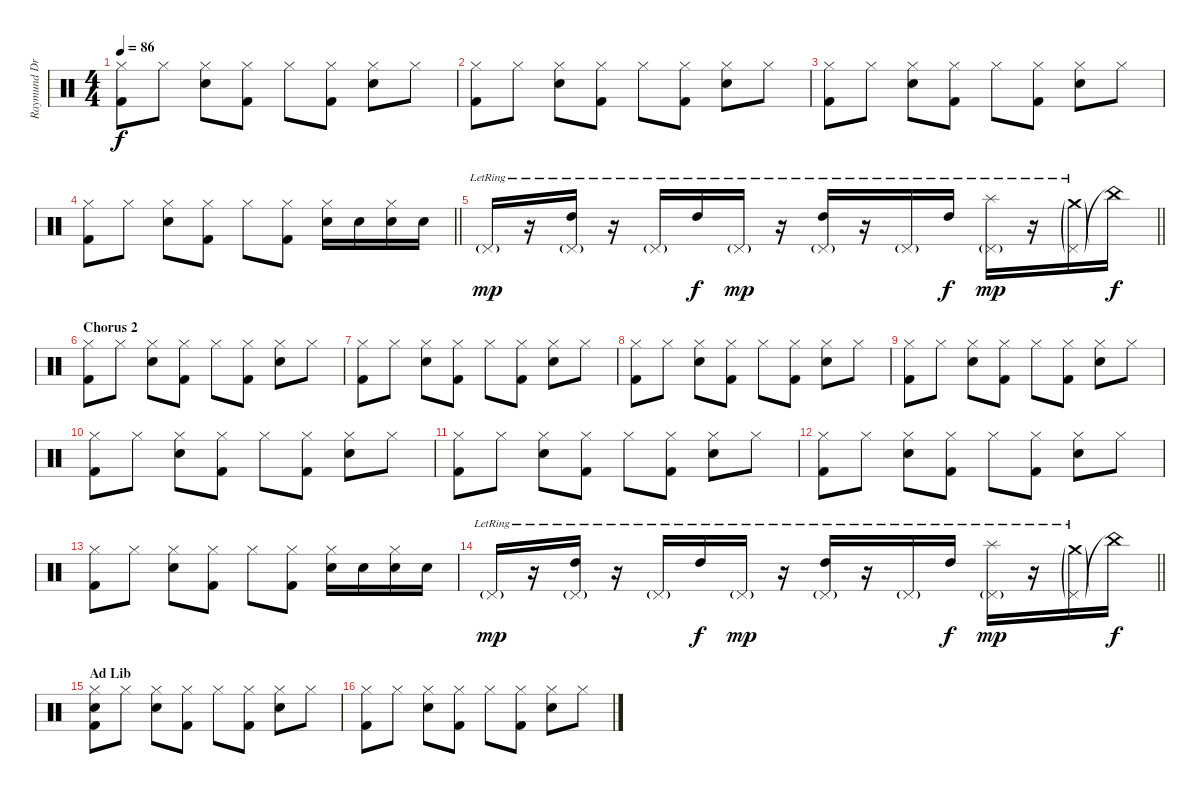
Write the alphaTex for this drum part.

\track ("Raymund Drums" "Raymund Dr") {instrument percussion}
\staff {score}
\articulation defaults
\ts (4 4)
\tempo 86
\clef neutral
\ks c
("Hi-Hat (closed)" "Kick (hit) 2").8{dy f} "Hi-Hat (closed)".8 ("Hi-Hat (closed)" "Snare (hit) 2").8 ("Hi-Hat (closed)" "Kick (hit) 2").8 "Hi-Hat (closed)".8 ("Hi-Hat (closed)" "Kick (hit) 2").8 ("Hi-Hat (closed)" "Snare (hit) 2").8 "Hi-Hat (closed)".8 |
("Hi-Hat (closed)" "Kick (hit) 2").8 "Hi-Hat (closed)".8 ("Hi-Hat (closed)" "Snare (hit) 2").8 ("Hi-Hat (closed)" "Kick (hit) 2").8 "Hi-Hat (closed)".8 ("Hi-Hat (closed)" "Kick (hit) 2").8 ("Hi-Hat (closed)" "Snare (hit) 2").8 "Hi-Hat (closed)".8 |
("Hi-Hat (closed)" "Kick (hit) 2").8 "Hi-Hat (closed)".8 ("Hi-Hat (closed)" "Snare (hit) 2").8 ("Hi-Hat (closed)" "Kick (hit) 2").8 "Hi-Hat (closed)".8 ("Hi-Hat (closed)" "Kick (hit) 2").8 ("Hi-Hat (closed)" "Snare (hit) 2").8 "Hi-Hat (closed)".8 |
\barLineRight lightlight
("Hi-Hat (closed)" "Kick (hit) 2").8 "Hi-Hat (closed)".8 ("Hi-Hat (closed)" "Snare (hit) 2").8 ("Hi-Hat (closed)" "Kick (hit) 2").8 "Hi-Hat (closed)".8 ("Hi-Hat (closed)" "Kick (hit) 2").8 ("Hi-Hat (closed)" "Snare (hit) 2").16 "Snare (hit) 2".16 ("Hi-Hat (closed)" "Snare (hit) 2").16 "Snare (hit) 2".16 |
\barLineRight lightlight "Pedal Hi-Hat (hit)"{g lr}.16{dy mp}
r.16 ("Pedal Hi-Hat (hit)"{g lr} "High Tom (hit)"{lr}).16 r.16 "Pedal Hi-Hat (hit)"{g lr}.16 "High Tom (hit)"{lr}.16{dy f} "Pedal Hi-Hat (hit)"{g lr}.16{dy mp} r.16 ("Pedal Hi-Hat (hit)"{g lr} "High Tom (hit)"{lr}).16 r.16 "Pedal Hi-Hat (hit)"{g lr}.16 "High Tom (hit)"{lr}.16{dy f} ("Pedal Hi-Hat (hit)"{g lr} "Splash (hit)"{lr}).16{dy mp} r.16 ("Pedal Hi-Hat (hit)"{g lr} "Crash medium (hit)"{g lr}).16 "China (hit)"{t}.16{dy f} |
\section ("" "Chorus 2")
("Hi-Hat (closed)" "Kick (hit) 2").8 "Hi-Hat (closed)".8 ("Hi-Hat (closed)" "Snare (hit) 2").8 ("Hi-Hat (closed)" "Kick (hit) 2").8 "Hi-Hat (closed)".8 ("Hi-Hat (closed)" "Kick (hit) 2").8 ("Hi-Hat (closed)" "Snare (hit) 2").8 "Hi-Hat (closed)".8 |
("Hi-Hat (closed)" "Kick (hit) 2").8 "Hi-Hat (closed)".8 ("Hi-Hat (closed)" "Snare (hit) 2").8 ("Hi-Hat (closed)" "Kick (hit) 2").8 "Hi-Hat (closed)".8 ("Hi-Hat (closed)" "Kick (hit) 2").8 ("Hi-Hat (closed)" "Snare (hit) 2").8 "Hi-Hat (closed)".8 |
("Hi-Hat (closed)" "Kick (hit) 2").8 "Hi-Hat (closed)".8 ("Hi-Hat (closed)" "Snare (hit) 2").8 ("Hi-Hat (closed)" "Kick (hit) 2").8 "Hi-Hat (closed)".8 ("Hi-Hat (closed)" "Kick (hit) 2").8 ("Hi-Hat (closed)" "Snare (hit) 2").8 "Hi-Hat (closed)".8 |
("Hi-Hat (closed)" "Kick (hit) 2").8 "Hi-Hat (closed)".8 ("Hi-Hat (closed)" "Snare (hit) 2").8 ("Hi-Hat (closed)" "Kick (hit) 2").8 "Hi-Hat (closed)".8 ("Hi-Hat (closed)" "Kick (hit) 2").8 ("Hi-Hat (closed)" "Snare (hit) 2").8 "Hi-Hat (closed)".8 |
("Hi-Hat (closed)" "Kick (hit) 2").8 "Hi-Hat (closed)".8 ("Hi-Hat (closed)" "Snare (hit) 2").8 ("Hi-Hat (closed)" "Kick (hit) 2").8 "Hi-Hat (closed)".8 ("Hi-Hat (closed)" "Kick (hit) 2").8 ("Hi-Hat (closed)" "Snare (hit) 2").8 "Hi-Hat (closed)".8 |
("Hi-Hat (closed)" "Kick (hit) 2").8 "Hi-Hat (closed)".8 ("Hi-Hat (closed)" "Snare (hit) 2").8 ("Hi-Hat (closed)" "Kick (hit) 2").8 "Hi-Hat (closed)".8 ("Hi-Hat (closed)" "Kick (hit) 2").8 ("Hi-Hat (closed)" "Snare (hit) 2").8 "Hi-Hat (closed)".8 |
("Hi-Hat (closed)" "Kick (hit) 2").8 "Hi-Hat (closed)".8 ("Hi-Hat (closed)" "Snare (hit) 2").8 ("Hi-Hat (closed)" "Kick (hit) 2").8 "Hi-Hat (closed)".8 ("Hi-Hat (closed)" "Kick (hit) 2").8 ("Hi-Hat (closed)" "Snare (hit) 2").8 "Hi-Hat (closed)".8 |
("Hi-Hat (closed)" "Kick (hit) 2").8 "Hi-Hat (closed)".8 ("Hi-Hat (closed)" "Snare (hit) 2").8 ("Hi-Hat (closed)" "Kick (hit) 2").8 "Hi-Hat (closed)".8 ("Hi-Hat (closed)" "Kick (hit) 2").8 ("Hi-Hat (closed)" "Snare (hit) 2").16 "Snare (hit) 2".16 ("Hi-Hat (closed)" "Snare (hit) 2").16 "Snare (hit) 2".16 |
\barLineRight lightlight "Pedal Hi-Hat (hit)"{g lr}.16{dy mp}
r.16 ("Pedal Hi-Hat (hit)"{g lr} "High Tom (hit)"{lr}).16 r.16 "Pedal Hi-Hat (hit)"{g lr}.16 "High Tom (hit)"{lr}.16{dy f} "Pedal Hi-Hat (hit)"{g lr}.16{dy mp} r.16 ("Pedal Hi-Hat (hit)"{g lr} "High Tom (hit)"{lr}).16 r.16 "Pedal Hi-Hat (hit)"{g lr}.16 "High Tom (hit)"{lr}.16{dy f} ("Pedal Hi-Hat (hit)"{g lr} "Splash (hit)"{lr}).16{dy mp} r.16 ("Pedal Hi-Hat (hit)"{g lr} "Crash medium (hit)"{g lr}).16 "China (hit)"{t}.16{dy f} |
\section ("" "Ad Lib")
("Hi-Hat (closed)" "Kick (hit) 2" "Snare (hit)").8 "Hi-Hat (closed)".8 ("Hi-Hat (closed)" "Snare (hit) 2").8 ("Hi-Hat (closed)" "Kick (hit) 2").8 "Hi-Hat (closed)".8 ("Hi-Hat (closed)" "Kick (hit) 2").8 ("Hi-Hat (closed)" "Snare (hit) 2").8 "Hi-Hat (closed)".8 |
("Hi-Hat (closed)" "Kick (hit) 2").8 "Hi-Hat (closed)".8 ("Hi-Hat (closed)" "Snare (hit) 2").8 ("Hi-Hat (closed)" "Kick (hit) 2").8 "Hi-Hat (closed)".8 ("Hi-Hat (closed)" "Kick (hit) 2").8 ("Hi-Hat (closed)" "Snare (hit) 2").8 "Hi-Hat (closed)".8
